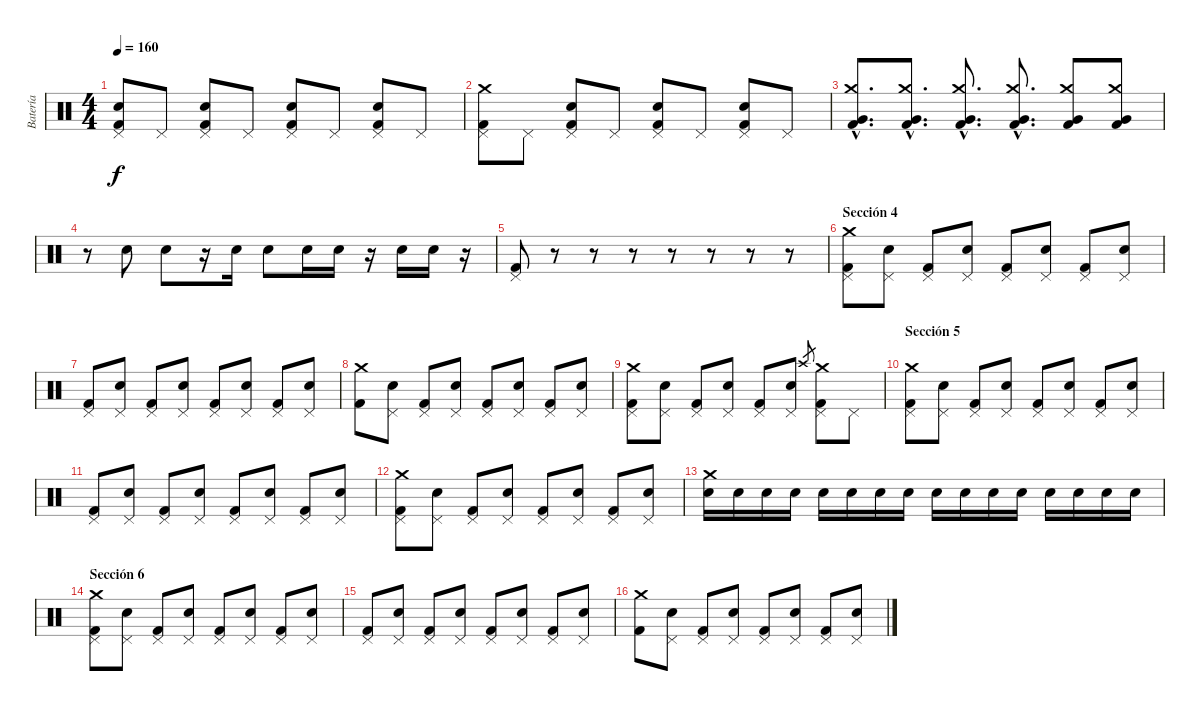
\track ("Batería" "Batería") {instrument percussion}
\staff {score}
\articulation defaults
\ts (4 4)
\tempo 160
\clef neutral
\ks c
("Pedal Hi-Hat (hit)" "Electric Snare (hit)" "Kick (hit) 2").8{dy f} "Pedal Hi-Hat (hit)".8 ("Pedal Hi-Hat (hit)" "Electric Snare (hit)" "Kick (hit) 2").8 "Pedal Hi-Hat (hit)".8 ("Pedal Hi-Hat (hit)" "Electric Snare (hit)" "Kick (hit) 2").8 "Pedal Hi-Hat (hit)".8 ("Pedal Hi-Hat (hit)" "Electric Snare (hit)" "Kick (hit) 2").8 "Pedal Hi-Hat (hit)".8 |
("Pedal Hi-Hat (hit)" "Crash medium (hit)" "Kick (hit) 2").8 "Pedal Hi-Hat (hit)".8 ("Pedal Hi-Hat (hit)" "Electric Snare (hit)" "Kick (hit) 2").8 "Pedal Hi-Hat (hit)".8 ("Pedal Hi-Hat (hit)" "Electric Snare (hit)" "Kick (hit) 2").8 "Pedal Hi-Hat (hit)".8 ("Pedal Hi-Hat (hit)" "Electric Snare (hit)" "Kick (hit) 2").8 "Pedal Hi-Hat (hit)".8 |
("Crash medium (hit)"{hac} "Very Low Tom (hit)"{hac} "Kick (hit) 2"{hac}).8{d} ("Crash medium (hit)"{hac} "Very Low Tom (hit)"{hac} "Kick (hit) 2"{hac}).8{d} ("Crash medium (hit)"{hac} "Very Low Tom (hit)"{hac} "Kick (hit) 2"{hac}).8{d} ("Crash medium (hit)"{hac} "Very Low Tom (hit)"{hac} "Kick (hit) 2"{hac}).8{d} ("Crash medium (hit)" "Very Low Tom (hit)" "Kick (hit) 2").8 ("Crash medium (hit)" "Very Low Tom (hit)" "Kick (hit) 2").8 |
r.8 "Electric Snare (hit)".8 "Electric Snare (hit)".8 r.16 "Electric Snare (hit)".16 "Electric Snare (hit)".8 "Electric Snare (hit)".16 "Electric Snare (hit)".16 r.16 "Electric Snare (hit)".16 "Electric Snare (hit)".16 r.16 |
("Pedal Hi-Hat (hit)" "Kick (hit) 2").8 r.8 r.8 r.8 r.8 r.8 r.8 r.8 |
\section ("" "Sección 4")
("Pedal Hi-Hat (hit)" "Crash medium (hit)" "Kick (hit) 2").8 ("Pedal Hi-Hat (hit)" "Electric Snare (hit)").8 ("Pedal Hi-Hat (hit)" "Kick (hit) 2").8 ("Pedal Hi-Hat (hit)" "Electric Snare (hit)").8 ("Pedal Hi-Hat (hit)" "Kick (hit) 2").8 ("Pedal Hi-Hat (hit)" "Electric Snare (hit)").8 ("Pedal Hi-Hat (hit)" "Kick (hit) 2").8 ("Pedal Hi-Hat (hit)" "Electric Snare (hit)").8 |
("Pedal Hi-Hat (hit)" "Kick (hit) 2").8 ("Pedal Hi-Hat (hit)" "Electric Snare (hit)").8 ("Pedal Hi-Hat (hit)" "Kick (hit) 2").8 ("Pedal Hi-Hat (hit)" "Electric Snare (hit)").8 ("Pedal Hi-Hat (hit)" "Kick (hit) 2").8 ("Pedal Hi-Hat (hit)" "Electric Snare (hit)").8 ("Pedal Hi-Hat (hit)" "Kick (hit) 2").8 ("Pedal Hi-Hat (hit)" "Electric Snare (hit)").8 |
("Crash medium (hit)" "Kick (hit) 2").8 ("Pedal Hi-Hat (hit)" "Electric Snare (hit)").8 ("Pedal Hi-Hat (hit)" "Kick (hit) 2").8 ("Pedal Hi-Hat (hit)" "Electric Snare (hit)").8 ("Pedal Hi-Hat (hit)" "Kick (hit) 2").8 ("Pedal Hi-Hat (hit)" "Electric Snare (hit)").8 ("Pedal Hi-Hat (hit)" "Kick (hit) 2").8 ("Pedal Hi-Hat (hit)" "Electric Snare (hit)").8 |
("Pedal Hi-Hat (hit)" "Crash medium (hit)" "Kick (hit) 2").8 ("Pedal Hi-Hat (hit)" "Electric Snare (hit)").8 ("Pedal Hi-Hat (hit)" "Kick (hit) 2").8 ("Pedal Hi-Hat (hit)" "Electric Snare (hit)").8 ("Pedal Hi-Hat (hit)" "Kick (hit) 2").8 ("Pedal Hi-Hat (hit)" "Electric Snare (hit)").8 "Crash high (hit)".8{gr} ("Pedal Hi-Hat (hit)" "Crash medium (hit)" "Kick (hit) 2").8 "Pedal Hi-Hat (hit)".8 |
\section ("" "Sección 5")
("Pedal Hi-Hat (hit)" "Crash medium (hit)" "Kick (hit) 2").8 ("Pedal Hi-Hat (hit)" "Electric Snare (hit)").8 ("Pedal Hi-Hat (hit)" "Kick (hit) 2").8 ("Pedal Hi-Hat (hit)" "Electric Snare (hit)").8 ("Pedal Hi-Hat (hit)" "Kick (hit) 2").8 ("Pedal Hi-Hat (hit)" "Electric Snare (hit)").8 ("Pedal Hi-Hat (hit)" "Kick (hit) 2").8 ("Pedal Hi-Hat (hit)" "Electric Snare (hit)").8 |
("Pedal Hi-Hat (hit)" "Kick (hit) 2").8 ("Pedal Hi-Hat (hit)" "Electric Snare (hit)").8 ("Pedal Hi-Hat (hit)" "Kick (hit) 2").8 ("Pedal Hi-Hat (hit)" "Electric Snare (hit)").8 ("Pedal Hi-Hat (hit)" "Kick (hit) 2").8 ("Pedal Hi-Hat (hit)" "Electric Snare (hit)").8 ("Pedal Hi-Hat (hit)" "Kick (hit) 2").8 ("Pedal Hi-Hat (hit)" "Electric Snare (hit)").8 |
("Pedal Hi-Hat (hit)" "Crash medium (hit)" "Kick (hit) 2").8 ("Pedal Hi-Hat (hit)" "Electric Snare (hit)").8 ("Pedal Hi-Hat (hit)" "Kick (hit) 2").8 ("Pedal Hi-Hat (hit)" "Electric Snare (hit)").8 ("Pedal Hi-Hat (hit)" "Kick (hit) 2").8 ("Pedal Hi-Hat (hit)" "Electric Snare (hit)").8 ("Pedal Hi-Hat (hit)" "Kick (hit) 2").8 ("Pedal Hi-Hat (hit)" "Electric Snare (hit)").8 |
("Crash medium (hit)" "Electric Snare (hit)").16 "Electric Snare (hit)".16 "Electric Snare (hit)".16 "Electric Snare (hit)".16 "Electric Snare (hit)".16 "Electric Snare (hit)".16 "Electric Snare (hit)".16 "Electric Snare (hit)".16 "Electric Snare (hit)".16 "Electric Snare (hit)".16 "Electric Snare (hit)".16 "Electric Snare (hit)".16 "Electric Snare (hit)".16 "Electric Snare (hit)".16 "Electric Snare (hit)".16 "Electric Snare (hit)".16 |
\section ("" "Sección 6")
("Pedal Hi-Hat (hit)" "Crash medium (hit)" "Kick (hit) 2").8 ("Pedal Hi-Hat (hit)" "Electric Snare (hit)").8 ("Pedal Hi-Hat (hit)" "Kick (hit) 2").8 ("Pedal Hi-Hat (hit)" "Electric Snare (hit)").8 ("Pedal Hi-Hat (hit)" "Kick (hit) 2").8 ("Pedal Hi-Hat (hit)" "Electric Snare (hit)").8 ("Pedal Hi-Hat (hit)" "Kick (hit) 2").8 ("Pedal Hi-Hat (hit)" "Electric Snare (hit)").8 |
("Pedal Hi-Hat (hit)" "Kick (hit) 2").8 ("Pedal Hi-Hat (hit)" "Electric Snare (hit)").8 ("Pedal Hi-Hat (hit)" "Kick (hit) 2").8 ("Pedal Hi-Hat (hit)" "Electric Snare (hit)").8 ("Pedal Hi-Hat (hit)" "Kick (hit) 2").8 ("Pedal Hi-Hat (hit)" "Electric Snare (hit)").8 ("Pedal Hi-Hat (hit)" "Kick (hit) 2").8 ("Pedal Hi-Hat (hit)" "Electric Snare (hit)").8 |
("Crash medium (hit)" "Kick (hit) 2").8 ("Pedal Hi-Hat (hit)" "Electric Snare (hit)").8 ("Pedal Hi-Hat (hit)" "Kick (hit) 2").8 ("Pedal Hi-Hat (hit)" "Electric Snare (hit)").8 ("Pedal Hi-Hat (hit)" "Kick (hit) 2").8 ("Pedal Hi-Hat (hit)" "Electric Snare (hit)").8 ("Pedal Hi-Hat (hit)" "Kick (hit) 2").8 ("Pedal Hi-Hat (hit)" "Electric Snare (hit)").8
